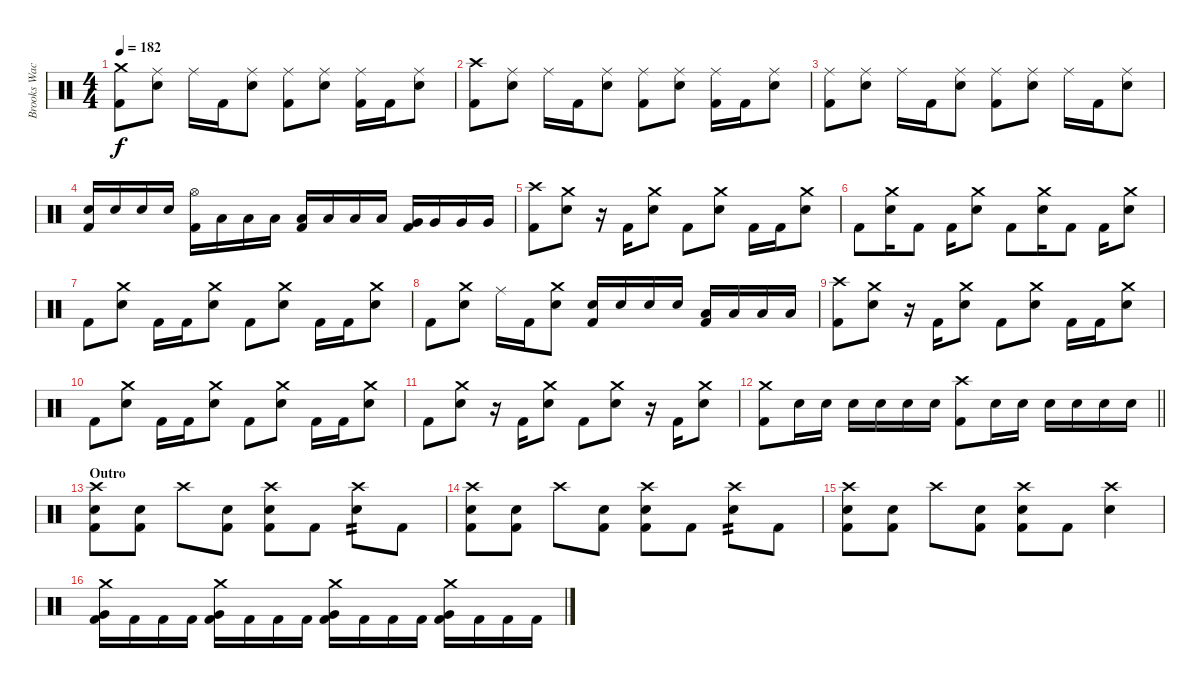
\track ("Brooks Wackerman" "Brooks Wac") {instrument percussion}
\staff {score}
\articulation defaults
\ts (4 4)
\tempo 182
\clef neutral
\ks c
("Crash medium (hit)" "Kick (hit) 2").8{dy f} ("Ride (middle)" "Electric Snare (hit)").8 "Ride (middle)".16 "Kick (hit) 2".16 ("Ride (middle)" "Electric Snare (hit)").8 ("Ride (middle)" "Kick (hit) 2").8 ("Ride (middle)" "Electric Snare (hit)").8 ("Ride (middle)" "Kick (hit) 2").16 "Kick (hit) 2".16 ("Ride (middle)" "Electric Snare (hit)").8 |
("Crash high (hit)" "Kick (hit) 2").8 ("Ride (middle)" "Electric Snare (hit)").8 "Ride (middle)".16 "Kick (hit) 2".16 ("Ride (middle)" "Electric Snare (hit)").8 ("Ride (middle)" "Kick (hit) 2").8 ("Ride (middle)" "Electric Snare (hit)").8 ("Ride (middle)" "Kick (hit) 2").16 "Kick (hit) 2".16 ("Ride (middle)" "Electric Snare (hit)").8 |
("Ride (middle)" "Kick (hit) 2").8 ("Ride (middle)" "Electric Snare (hit)").8 "Ride (middle)".16 "Kick (hit) 2".16 ("Ride (middle)" "Electric Snare (hit)").8 ("Ride (middle)" "Kick (hit) 2").8 ("Ride (middle)" "Electric Snare (hit)").8 "Ride (middle)".16 "Kick (hit) 2".16 ("Ride (middle)" "Electric Snare (hit)").8 |
("Electric Snare (hit)" "Kick (hit) 2").16 "Electric Snare (hit)".16 "Electric Snare (hit)".16 "Electric Snare (hit)".16 ("Hi-Hat (open)" "Kick (hit) 2").16 "Low Floor Tom (hit)".16 "Low Floor Tom (hit)".16 "Low Floor Tom (hit)".16 ("Low Tom (hit)" "Kick (hit) 2").16 "Low Tom (hit)".16 "Low Tom (hit)".16 "Low Tom (hit)".16 ("Very Low Tom (hit)" "Kick (hit) 2").16 "Very Low Tom (hit)".16 "Very Low Tom (hit)".16 "Very Low Tom (hit)".16 |
("Crash high (hit)" "Kick (hit) 2").8 ("Crash medium (hit)" "Electric Snare (hit)").8 r.16 "Kick (hit) 2".16 ("Crash medium (hit)" "Electric Snare (hit)").8 "Kick (hit) 2".8 ("Crash medium (hit)" "Electric Snare (hit)").8 "Kick (hit) 2".16 "Kick (hit) 2".16 ("Crash medium (hit)" "Electric Snare (hit)").8 |
"Kick (hit) 2".8 ("Crash medium (hit)" "Electric Snare (hit)").16 "Kick (hit) 2".8 "Kick (hit) 2".16 ("Crash medium (hit)" "Electric Snare (hit)").8 "Kick (hit) 2".8 ("Crash medium (hit)" "Electric Snare (hit)").16 "Kick (hit) 2".8 "Kick (hit) 2".16 ("Crash medium (hit)" "Electric Snare (hit)").8 |
"Kick (hit) 2".8 ("Crash medium (hit)" "Electric Snare (hit)").8 "Kick (hit) 2".16 "Kick (hit) 2".16 ("Crash medium (hit)" "Electric Snare (hit)").8 "Kick (hit) 2".8 ("Crash medium (hit)" "Electric Snare (hit)").8 "Kick (hit) 2".16 "Kick (hit) 2".16 ("Crash medium (hit)" "Electric Snare (hit)").8 |
"Kick (hit) 2".8 ("Crash medium (hit)" "Electric Snare (hit)").8 "Ride (middle)".16 "Kick (hit) 2".16 ("Crash medium (hit)" "Electric Snare (hit)").8 ("Electric Snare (hit)" "Kick (hit) 2").16 "Electric Snare (hit)".16 "Electric Snare (hit)".16 "Electric Snare (hit)".16 ("Low Tom (hit)" "Kick (hit) 2").16 "Low Tom (hit)".16 "Low Tom (hit)".16 "Low Tom (hit)".16 |
("Crash high (hit)" "Kick (hit) 2").8 ("Crash medium (hit)" "Electric Snare (hit)").8 r.16 "Kick (hit) 2".16 ("Crash medium (hit)" "Electric Snare (hit)").8 "Kick (hit) 2".8 ("Crash medium (hit)" "Electric Snare (hit)").8 "Kick (hit) 2".16 "Kick (hit) 2".16 ("Crash medium (hit)" "Electric Snare (hit)").8 |
"Kick (hit) 2".8 ("Crash medium (hit)" "Electric Snare (hit)").8 "Kick (hit) 2".16 "Kick (hit) 2".16 ("Crash medium (hit)" "Electric Snare (hit)").8 "Kick (hit) 2".8 ("Crash medium (hit)" "Electric Snare (hit)").8 "Kick (hit) 2".16 "Kick (hit) 2".16 ("Crash medium (hit)" "Electric Snare (hit)").8 |
"Kick (hit) 2".8 ("Crash medium (hit)" "Electric Snare (hit)").8 r.16 "Kick (hit) 2".16 ("Crash medium (hit)" "Electric Snare (hit)").8 "Kick (hit) 2".8 ("Crash medium (hit)" "Electric Snare (hit)").8 r.16 "Kick (hit) 2".16 ("Crash medium (hit)" "Electric Snare (hit)").8 |
\barLineRight lightlight
("Crash medium (hit)" "Kick (hit) 2").8 "Electric Snare (hit)".16 "Electric Snare (hit)".16 "Electric Snare (hit)".16 "Electric Snare (hit)".16 "Electric Snare (hit)".16 "Electric Snare (hit)".16 ("Crash high (hit)" "Kick (hit) 2").8 "Electric Snare (hit)".16 "Electric Snare (hit)".16 "Electric Snare (hit)".16 "Electric Snare (hit)".16 "Electric Snare (hit)".16 "Electric Snare (hit)".16 |
\section ("" "Outro")
("Crash high (hit)" "Electric Snare (hit)" "Kick (hit) 2").8 ("Electric Snare (hit)" "Kick (hit) 2").8 "Crash high (hit)".8 ("Electric Snare (hit)" "Kick (hit) 2").8 ("Crash high (hit)" "Electric Snare (hit)" "Kick (hit) 2").8 "Kick (hit) 2".8 ("Crash high (hit)" "Electric Snare (hit)").8{tp 2} "Kick (hit) 2".8 |
("Crash high (hit)" "Electric Snare (hit)" "Kick (hit) 2").8 ("Electric Snare (hit)" "Kick (hit) 2").8 "Crash high (hit)".8 ("Electric Snare (hit)" "Kick (hit) 2").8 ("Crash high (hit)" "Electric Snare (hit)" "Kick (hit) 2").8 "Kick (hit) 2".8 ("Crash high (hit)" "Electric Snare (hit)").8{tp 2} "Kick (hit) 2".8 |
("Crash high (hit)" "Electric Snare (hit)" "Kick (hit) 2").8 ("Electric Snare (hit)" "Kick (hit) 2").8 "Crash high (hit)".8 ("Electric Snare (hit)" "Kick (hit) 2").8 ("Crash high (hit)" "Electric Snare (hit)" "Kick (hit) 2").8 "Kick (hit) 2".8 ("Crash high (hit)" "Electric Snare (hit)").4 |
("Crash medium (hit)" "Very Low Tom (hit)" "Kick (hit) 2").16 "Kick (hit) 2".16 "Kick (hit) 2".16 "Kick (hit) 2".16 ("Crash medium (hit)" "Very Low Tom (hit)" "Kick (hit) 2").16 "Kick (hit) 2".16 "Kick (hit) 2".16 "Kick (hit) 2".16 ("Crash medium (hit)" "Very Low Tom (hit)" "Kick (hit) 2").16 "Kick (hit) 2".16 "Kick (hit) 2".16 "Kick (hit) 2".16 ("Crash medium (hit)" "Very Low Tom (hit)" "Kick (hit) 2").16 "Kick (hit) 2".16 "Kick (hit) 2".16 "Kick (hit) 2".16
